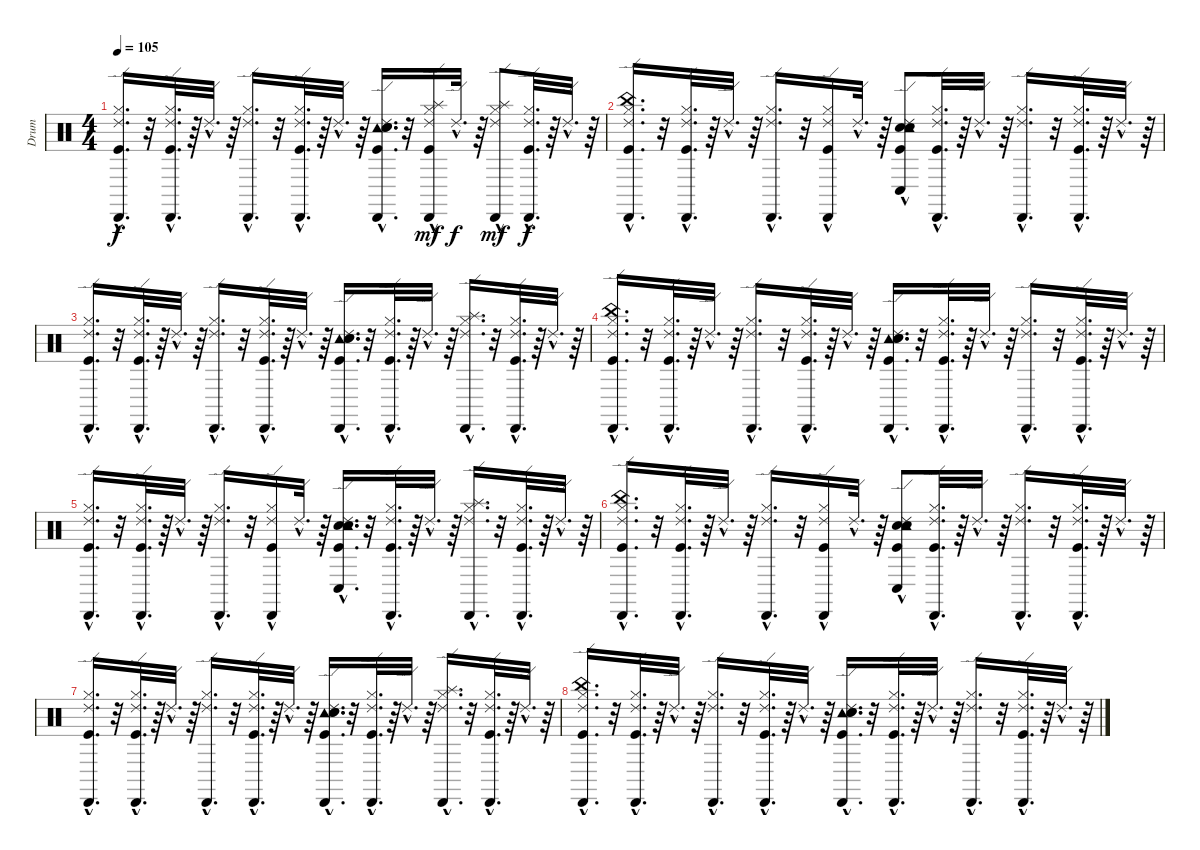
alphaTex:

\track ("Drum" "Drum") {instrument percussion}
\staff {score}
\articulation defaults
\ts (4 4)
\tempo 105
\clef neutral
\ks c
("Cabasa (hit)"{hac} "Kick (hit)"{hac} "Ride (edge) 2"{hac} "Hi-Hat (closed)"{hac}).16{d dy f} r.32 ("Cabasa (hit)"{hac} "Kick (hit)"{hac} "Ride (edge) 2"{hac} "Hi-Hat (closed)"{hac}).32{d} r.64 "Ride (edge) 2"{hac}.32{d} r.64 ("Cabasa (hit)"{hac} "Ride (edge) 2"{hac} "Hi-Hat (closed)"{hac}).16{d} r.32 ("Cabasa (hit)"{hac} "Kick (hit)"{hac} "Ride (edge) 2"{hac} "Hi-Hat (closed)"{hac}).32{d} r.64 "Ride (edge) 2"{hac}.32{d} r.64 ("Cabasa (hit)"{hac} "Tambourine (hit)"{hac} "Ride (edge) 2"{hac} "Electric Snare (hit)"{hac} "Snare (hit) 2"{hac} "Kick (hit)"{hac}).16{d} r.32 ("Splash (hit)"{hac} "Cabasa (hit)"{hac} "Kick (hit)"{hac} "Ride (edge) 2"{hac} "Hi-Hat (closed)"{hac}).16{dy mf} "Ride (edge) 2"{hac}.32{d dy f} r.64 ("Splash (hit)"{hac} "Cabasa (hit)"{hac} "Ride (edge) 2"{hac} "Hi-Hat (closed)"{hac}).8{dy mf} ("Cabasa (hit)"{hac} "Ride (edge) 2"{hac} "Kick (hit)"{hac} "Hi-Hat (closed)"{hac}).32{d dy f} r.64 "Ride (edge) 2"{hac}.32{d} r.64 |
("Ride (edge) 2"{hac} "Kick (hit)"{hac} "China (hit)"{hac} "Cabasa (hit)"{hac} "Hi-Hat (closed)"{hac}).16{d} r.32 ("Ride (edge) 2"{hac} "Kick (hit)"{hac} "Cabasa (hit)"{hac} "Hi-Hat (closed)"{hac}).32{d} r.64 "Ride (edge) 2"{hac}.32{d} r.64 ("Ride (edge) 2"{hac} "Cabasa (hit)"{hac} "Hi-Hat (closed)"{hac}).16{d} r.32 ("Ride (edge) 2"{hac} "Kick (hit)"{hac} "Cabasa (hit)"{hac} "Hi-Hat (closed)"{hac}).16 "Ride (edge) 2"{hac}.32{d} r.64 ("Conga low (hit)" "Kick (hit)"{hac} "Snare (hit) 2"{hac} "Electric Snare (hit)"{hac} "Ride (edge) 2"{hac} "Tambourine (hit)"{hac}).8 ("Ride (edge) 2"{hac} "Kick (hit)"{hac} "Cabasa (hit)"{hac} "Hi-Hat (closed)"{hac}).32{d} r.64 "Ride (edge) 2"{hac}.32{d} r.64 ("Ride (edge) 2"{hac} "Cabasa (hit)"{hac} "Hi-Hat (closed)"{hac}).16{d} r.32 ("Kick (hit)"{hac} "Ride (edge) 2"{hac} "Cabasa (hit)"{hac} "Hi-Hat (closed)"{hac}).32{d} r.64 "Ride (edge) 2"{hac}.32{d} r.64 |
("Cabasa (hit)"{hac} "Kick (hit)"{hac} "Ride (edge) 2"{hac} "Hi-Hat (closed)"{hac}).16{d} r.32 ("Cabasa (hit)"{hac} "Kick (hit)"{hac} "Ride (edge) 2"{hac} "Hi-Hat (closed)"{hac}).32{d} r.64 "Ride (edge) 2"{hac}.32{d} r.64 ("Cabasa (hit)"{hac} "Ride (edge) 2"{hac} "Hi-Hat (closed)"{hac}).16{d} r.32 ("Cabasa (hit)"{hac} "Kick (hit)"{hac} "Ride (edge) 2"{hac} "Hi-Hat (closed)"{hac}).32{d} r.64 "Ride (edge) 2"{hac}.32{d} r.64 ("Cabasa (hit)"{hac} "Tambourine (hit)"{hac} "Ride (edge) 2"{hac} "Electric Snare (hit)"{hac} "Snare (hit) 2"{hac} "Kick (hit)"{hac}).16{d} r.32 ("Cabasa (hit)"{hac} "Kick (hit)"{hac} "Ride (edge) 2"{hac} "Hi-Hat (closed)"{hac}).32{d} r.64 "Ride (edge) 2"{hac}.32{d} r.64 ("Splash (hit)"{hac} "Cabasa (hit)"{hac} "Ride (edge) 2"{hac} "Hi-Hat (closed)"{hac}).16{d} r.32 ("Cabasa (hit)"{hac} "Ride (edge) 2"{hac} "Kick (hit)"{hac} "Hi-Hat (closed)"{hac}).32{d} r.64 "Ride (edge) 2"{hac}.32{d} r.64 |
("Cabasa (hit)"{hac} "China (hit)"{hac} "Kick (hit)"{hac} "Ride (edge) 2"{hac} "Hi-Hat (closed)"{hac}).16{d} r.32 ("Cabasa (hit)"{hac} "Kick (hit)"{hac} "Ride (edge) 2"{hac} "Hi-Hat (closed)"{hac}).32{d} r.64 "Ride (edge) 2"{hac}.32{d} r.64 ("Cabasa (hit)"{hac} "Ride (edge) 2"{hac} "Hi-Hat (closed)"{hac}).16{d} r.32 ("Cabasa (hit)"{hac} "Kick (hit)"{hac} "Ride (edge) 2"{hac} "Hi-Hat (closed)"{hac}).32{d} r.64 "Ride (edge) 2"{hac}.32{d} r.64 ("Cabasa (hit)"{hac} "Tambourine (hit)"{hac} "Ride (edge) 2"{hac} "Electric Snare (hit)"{hac} "Snare (hit) 2"{hac} "Kick (hit)"{hac}).16{d} r.32 ("Cabasa (hit)"{hac} "Kick (hit)"{hac} "Ride (edge) 2"{hac} "Hi-Hat (closed)"{hac}).32{d} r.64 "Ride (edge) 2"{hac}.32{d} r.64 ("Cabasa (hit)"{hac} "Ride (edge) 2"{hac} "Hi-Hat (closed)"{hac}).16{d} r.32 ("Cabasa (hit)"{hac} "Ride (edge) 2"{hac} "Kick (hit)"{hac} "Hi-Hat (closed)"{hac}).32{d} r.64 "Ride (edge) 2"{hac}.32{d} r.64 |
("Hi-Hat (closed)"{hac} "Ride (edge) 2"{hac} "Kick (hit)"{hac} "Cabasa (hit)"{hac}).16{d} r.32 ("Hi-Hat (closed)"{hac} "Ride (edge) 2"{hac} "Kick (hit)"{hac} "Cabasa (hit)"{hac}).32{d} r.64 "Ride (edge) 2"{hac}.32{d} r.64 ("Hi-Hat (closed)"{hac} "Ride (edge) 2"{hac} "Cabasa (hit)"{hac}).16{d} r.32 ("Hi-Hat (closed)"{hac} "Ride (edge) 2"{hac} "Kick (hit)"{hac} "Cabasa (hit)"{hac}).16 "Ride (edge) 2"{hac}.32{d} r.64 ("Conga low (hit)"{hac} "Kick (hit)"{hac} "Snare (hit) 2"{hac} "Electric Snare (hit)"{hac} "Ride (edge) 2"{hac} "Tambourine (hit)"{hac}).16{d} r.32 ("Hi-Hat (closed)"{hac} "Ride (edge) 2"{hac} "Kick (hit)"{hac} "Cabasa (hit)"{hac}).32{d} r.64 "Ride (edge) 2"{hac}.32{d} r.64 ("Splash (hit)"{hac} "Hi-Hat (closed)"{hac} "Ride (edge) 2"{hac} "Cabasa (hit)"{hac}).16{d} r.32 ("Hi-Hat (closed)"{hac} "Kick (hit)"{hac} "Ride (edge) 2"{hac} "Cabasa (hit)"{hac}).32{d} r.64 "Ride (edge) 2"{hac}.32{d} r.64 |
("Ride (edge) 2"{hac} "Kick (hit)"{hac} "China (hit)"{hac} "Cabasa (hit)"{hac} "Hi-Hat (closed)"{hac}).16{d} r.32 ("Ride (edge) 2"{hac} "Kick (hit)"{hac} "Cabasa (hit)"{hac} "Hi-Hat (closed)"{hac}).32{d} r.64 "Ride (edge) 2"{hac}.32{d} r.64 ("Ride (edge) 2"{hac} "Cabasa (hit)"{hac} "Hi-Hat (closed)"{hac}).16{d} r.32 ("Ride (edge) 2"{hac} "Kick (hit)"{hac} "Cabasa (hit)"{hac} "Hi-Hat (closed)"{hac}).16 "Ride (edge) 2"{hac}.32{d} r.64 ("Conga low (hit)" "Kick (hit)"{hac} "Snare (hit) 2"{hac} "Electric Snare (hit)"{hac} "Ride (edge) 2"{hac} "Tambourine (hit)"{hac}).8 ("Ride (edge) 2"{hac} "Kick (hit)"{hac} "Cabasa (hit)"{hac} "Hi-Hat (closed)"{hac}).32{d} r.64 "Ride (edge) 2"{hac}.32{d} r.64 ("Ride (edge) 2"{hac} "Cabasa (hit)"{hac} "Hi-Hat (closed)"{hac}).16{d} r.32 ("Kick (hit)"{hac} "Ride (edge) 2"{hac} "Cabasa (hit)"{hac} "Hi-Hat (closed)"{hac}).32{d} r.64 "Ride (edge) 2"{hac}.32{d} r.64 |
("Cabasa (hit)"{hac} "Kick (hit)"{hac} "Ride (edge) 2"{hac} "Hi-Hat (closed)"{hac}).16{d} r.32 ("Cabasa (hit)"{hac} "Kick (hit)"{hac} "Ride (edge) 2"{hac} "Hi-Hat (closed)"{hac}).32{d} r.64 "Ride (edge) 2"{hac}.32{d} r.64 ("Cabasa (hit)"{hac} "Ride (edge) 2"{hac} "Hi-Hat (closed)"{hac}).16{d} r.32 ("Cabasa (hit)"{hac} "Kick (hit)"{hac} "Ride (edge) 2"{hac} "Hi-Hat (closed)"{hac}).32{d} r.64 "Ride (edge) 2"{hac}.32{d} r.64 ("Cabasa (hit)"{hac} "Tambourine (hit)"{hac} "Ride (edge) 2"{hac} "Electric Snare (hit)"{hac} "Snare (hit) 2"{hac} "Kick (hit)"{hac}).16{d} r.32 ("Cabasa (hit)"{hac} "Kick (hit)"{hac} "Ride (edge) 2"{hac} "Hi-Hat (closed)"{hac}).32{d} r.64 "Ride (edge) 2"{hac}.32{d} r.64 ("Splash (hit)"{hac} "Cabasa (hit)"{hac} "Ride (edge) 2"{hac} "Hi-Hat (closed)"{hac}).16{d} r.32 ("Cabasa (hit)"{hac} "Ride (edge) 2"{hac} "Kick (hit)"{hac} "Hi-Hat (closed)"{hac}).32{d} r.64 "Ride (edge) 2"{hac}.32{d} r.64 |
("Cabasa (hit)"{hac} "China (hit)"{hac} "Kick (hit)"{hac} "Ride (edge) 2"{hac} "Hi-Hat (closed)"{hac}).16{d} r.32 ("Cabasa (hit)"{hac} "Kick (hit)"{hac} "Ride (edge) 2"{hac} "Hi-Hat (closed)"{hac}).32{d} r.64 "Ride (edge) 2"{hac}.32{d} r.64 ("Cabasa (hit)"{hac} "Ride (edge) 2"{hac} "Hi-Hat (closed)"{hac}).16{d} r.32 ("Cabasa (hit)"{hac} "Kick (hit)"{hac} "Ride (edge) 2"{hac} "Hi-Hat (closed)"{hac}).32{d} r.64 "Ride (edge) 2"{hac}.32{d} r.64 ("Cabasa (hit)"{hac} "Tambourine (hit)"{hac} "Ride (edge) 2"{hac} "Electric Snare (hit)"{hac} "Snare (hit) 2"{hac} "Kick (hit)"{hac}).16{d} r.32 ("Cabasa (hit)"{hac} "Kick (hit)"{hac} "Ride (edge) 2"{hac} "Hi-Hat (closed)"{hac}).32{d} r.64 "Ride (edge) 2"{hac}.32{d} r.64 ("Cabasa (hit)"{hac} "Ride (edge) 2"{hac} "Hi-Hat (closed)"{hac}).16{d} r.32 ("Cabasa (hit)"{hac} "Ride (edge) 2"{hac} "Kick (hit)"{hac} "Hi-Hat (closed)"{hac}).32{d} r.64 "Ride (edge) 2"{hac}.32{d} r.64
